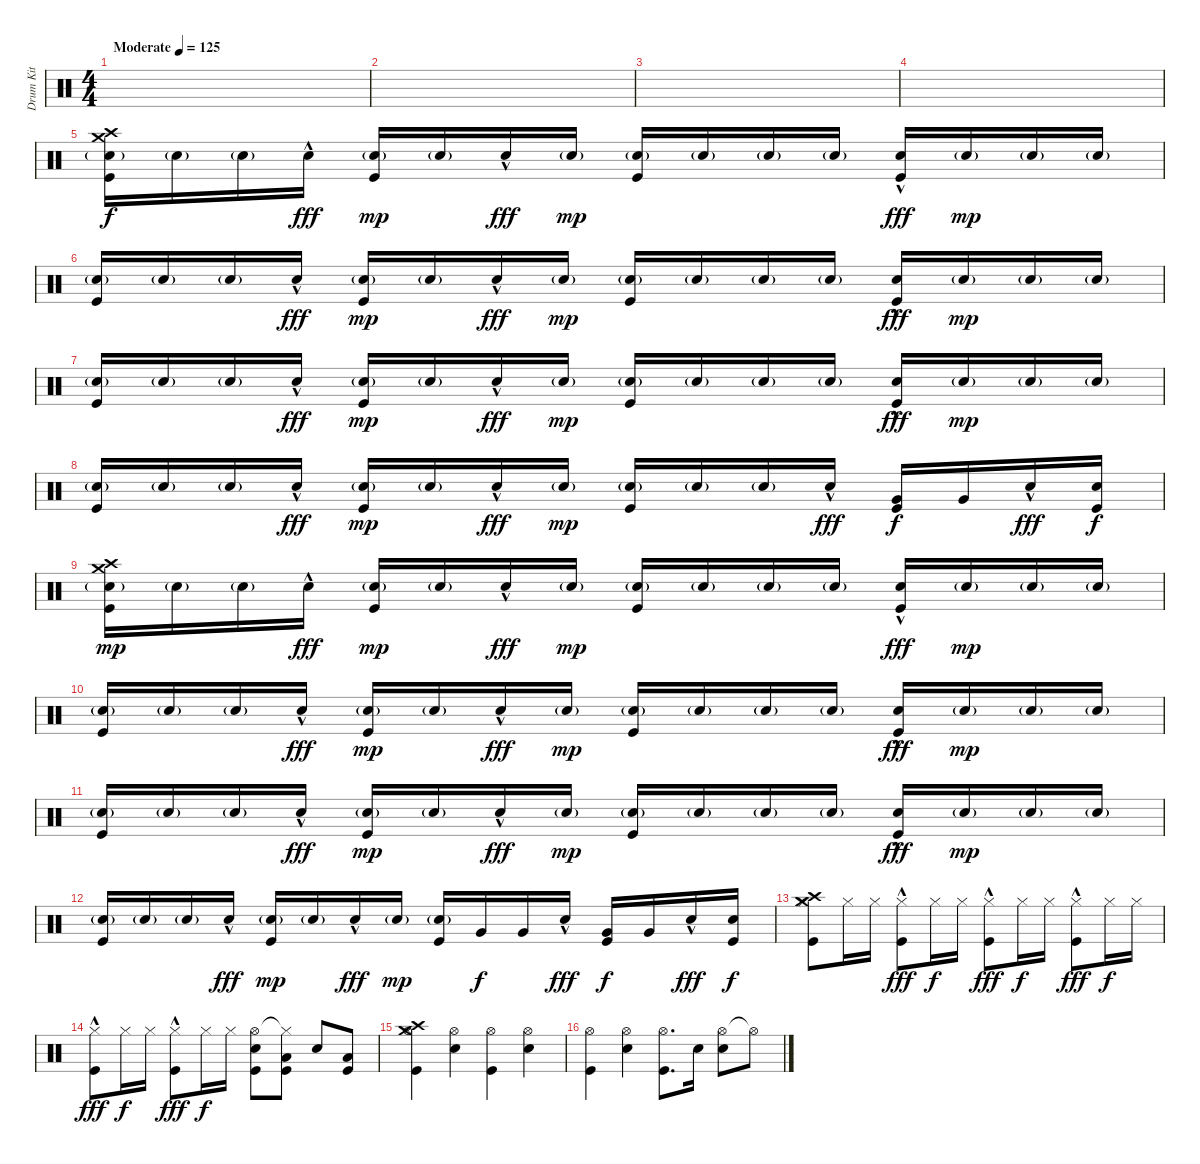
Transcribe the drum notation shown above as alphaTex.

\track ("Drum Kit" "Drum Kit") {instrument percussion}
\staff {score}
\articulation defaults
\ts (4 4)
\tempo (125 "Moderate")
\clef neutral
\ks c
|
|
|
|
("Crash high (hit)" "Crash medium (hit)" "Electric Snare (hit)"{g} "Kick (hit)").16 "Electric Snare (hit)"{g}.16 "Electric Snare (hit)"{g}.16 "Electric Snare (hit)"{hac}.16{dy fff} ("Electric Snare (hit)"{g} "Kick (hit)").16{dy mp} "Electric Snare (hit)"{g}.16 "Electric Snare (hit)"{hac}.16{dy fff} "Electric Snare (hit)"{g}.16{dy mp} ("Electric Snare (hit)"{g} "Kick (hit)").16 "Electric Snare (hit)"{g}.16 "Electric Snare (hit)"{g}.16 "Electric Snare (hit)"{g}.16 ("Electric Snare (hit)"{hac} "Kick (hit)").16{dy fff} "Electric Snare (hit)"{g}.16{dy mp} "Electric Snare (hit)"{g}.16 "Electric Snare (hit)"{g}.16 |
("Electric Snare (hit)"{g} "Kick (hit)").16 "Electric Snare (hit)"{g}.16 "Electric Snare (hit)"{g}.16 "Electric Snare (hit)"{hac}.16{dy fff} ("Electric Snare (hit)"{g} "Kick (hit)").16{dy mp} "Electric Snare (hit)"{g}.16 "Electric Snare (hit)"{hac}.16{dy fff} "Electric Snare (hit)"{g}.16{dy mp} ("Electric Snare (hit)"{g} "Kick (hit)").16 "Electric Snare (hit)"{g}.16 "Electric Snare (hit)"{g}.16 "Electric Snare (hit)"{g}.16 ("Electric Snare (hit)"{hac} "Kick (hit)").16{dy fff} "Electric Snare (hit)"{g}.16{dy mp} "Electric Snare (hit)"{g}.16 "Electric Snare (hit)"{g}.16 |
("Electric Snare (hit)"{g} "Kick (hit)").16 "Electric Snare (hit)"{g}.16 "Electric Snare (hit)"{g}.16 "Electric Snare (hit)"{hac}.16{dy fff} ("Electric Snare (hit)"{g} "Kick (hit)").16{dy mp} "Electric Snare (hit)"{g}.16 "Electric Snare (hit)"{hac}.16{dy fff} "Electric Snare (hit)"{g}.16{dy mp} ("Electric Snare (hit)"{g} "Kick (hit)").16 "Electric Snare (hit)"{g}.16 "Electric Snare (hit)"{g}.16 "Electric Snare (hit)"{g}.16 ("Electric Snare (hit)"{hac} "Kick (hit)").16{dy fff} "Electric Snare (hit)"{g}.16{dy mp} "Electric Snare (hit)"{g}.16 "Electric Snare (hit)"{g}.16 |
("Electric Snare (hit)"{g} "Kick (hit)").16 "Electric Snare (hit)"{g}.16 "Electric Snare (hit)"{g}.16 "Electric Snare (hit)"{hac}.16{dy fff} ("Electric Snare (hit)"{g} "Kick (hit)").16{dy mp} "Electric Snare (hit)"{g}.16 "Electric Snare (hit)"{hac}.16{dy fff} "Electric Snare (hit)"{g}.16{dy mp} ("Electric Snare (hit)"{g} "Kick (hit)").16 "Electric Snare (hit)"{g}.16 "Electric Snare (hit)"{g}.16 "Electric Snare (hit)"{hac}.16{dy fff} ("Very Low Tom (hit)" "Kick (hit)").16{dy f} "Very Low Tom (hit)".16 "Electric Snare (hit)"{hac}.16{dy fff} ("Electric Snare (hit)" "Kick (hit)").16{dy f} |
("Crash high (hit)" "Crash medium (hit)" "Electric Snare (hit)"{g} "Kick (hit)").16{dy mp} "Electric Snare (hit)"{g}.16 "Electric Snare (hit)"{g}.16 "Electric Snare (hit)"{hac}.16{dy fff} ("Electric Snare (hit)"{g} "Kick (hit)").16{dy mp} "Electric Snare (hit)"{g}.16 "Electric Snare (hit)"{hac}.16{dy fff} "Electric Snare (hit)"{g}.16{dy mp} ("Electric Snare (hit)"{g} "Kick (hit)").16 "Electric Snare (hit)"{g}.16 "Electric Snare (hit)"{g}.16 "Electric Snare (hit)"{g}.16 ("Electric Snare (hit)"{hac} "Kick (hit)").16{dy fff} "Electric Snare (hit)"{g}.16{dy mp} "Electric Snare (hit)"{g}.16 "Electric Snare (hit)"{g}.16 |
("Electric Snare (hit)"{g} "Kick (hit)").16 "Electric Snare (hit)"{g}.16 "Electric Snare (hit)"{g}.16 "Electric Snare (hit)"{hac}.16{dy fff} ("Electric Snare (hit)"{g} "Kick (hit)").16{dy mp} "Electric Snare (hit)"{g}.16 "Electric Snare (hit)"{hac}.16{dy fff} "Electric Snare (hit)"{g}.16{dy mp} ("Electric Snare (hit)"{g} "Kick (hit)").16 "Electric Snare (hit)"{g}.16 "Electric Snare (hit)"{g}.16 "Electric Snare (hit)"{g}.16 ("Electric Snare (hit)"{hac} "Kick (hit)").16{dy fff} "Electric Snare (hit)"{g}.16{dy mp} "Electric Snare (hit)"{g}.16 "Electric Snare (hit)"{g}.16 |
("Electric Snare (hit)"{g} "Kick (hit)").16 "Electric Snare (hit)"{g}.16 "Electric Snare (hit)"{g}.16 "Electric Snare (hit)"{hac}.16{dy fff} ("Electric Snare (hit)"{g} "Kick (hit)").16{dy mp} "Electric Snare (hit)"{g}.16 "Electric Snare (hit)"{hac}.16{dy fff} "Electric Snare (hit)"{g}.16{dy mp} ("Electric Snare (hit)"{g} "Kick (hit)").16 "Electric Snare (hit)"{g}.16 "Electric Snare (hit)"{g}.16 "Electric Snare (hit)"{g}.16 ("Electric Snare (hit)"{hac} "Kick (hit)").16{dy fff} "Electric Snare (hit)"{g}.16{dy mp} "Electric Snare (hit)"{g}.16 "Electric Snare (hit)"{g}.16 |
("Electric Snare (hit)"{g} "Kick (hit)").16 "Electric Snare (hit)"{g}.16 "Electric Snare (hit)"{g}.16 "Electric Snare (hit)"{hac}.16{dy fff} ("Electric Snare (hit)"{g} "Kick (hit)").16{dy mp} "Electric Snare (hit)"{g}.16 "Electric Snare (hit)"{hac}.16{dy fff} "Electric Snare (hit)"{g}.16{dy mp} ("Electric Snare (hit)"{g} "Kick (hit)").16 "Very Low Tom (hit)".16{dy f} "Very Low Tom (hit)".16 "Electric Snare (hit)"{hac}.16{dy fff} ("Very Low Tom (hit)" "Kick (hit)").16{dy f} "Very Low Tom (hit)".16 "Electric Snare (hit)"{hac}.16{dy fff} ("Electric Snare (hit)" "Kick (hit)").16{dy f} |
("Crash high (hit)" "Hi-Hat (closed)" "Crash medium (hit)" "Kick (hit)").8 "Hi-Hat (closed)".16 "Hi-Hat (closed)".16 ("Hi-Hat (closed)"{hac} "Kick (hit)").8{dy fff} "Hi-Hat (closed)".16{dy f} "Hi-Hat (closed)".16 ("Hi-Hat (closed)"{hac} "Kick (hit)").8{dy fff} "Hi-Hat (closed)".16{dy f} "Hi-Hat (closed)".16 ("Hi-Hat (closed)"{hac} "Kick (hit)").8{dy fff} "Hi-Hat (closed)".16{dy f} "Hi-Hat (closed)".16 |
("Hi-Hat (closed)"{hac} "Kick (hit)").8{dy fff} "Hi-Hat (closed)".16{dy f} "Hi-Hat (closed)".16 ("Hi-Hat (closed)"{hac} "Kick (hit)").8{dy fff} "Hi-Hat (closed)".16{dy f} "Hi-Hat (closed)".16 ("Hi-Hat (open)" "Electric Snare (hit)" "Kick (hit)").8 ("Hi-Hat (closed)"{t} "Kick (hit)" "Low Floor Tom (hit)").8 "Electric Snare (hit)".8 ("Kick (hit)" "Low Floor Tom (hit)").8 |
("Crash high (hit)" "Hi-Hat (open)" "Crash medium (hit)" "Kick (hit)").4 ("Hi-Hat (open)" "Electric Snare (hit)").4 ("Hi-Hat (open)" "Kick (hit)").4 ("Hi-Hat (open)" "Electric Snare (hit)").4 |
("Hi-Hat (open)" "Kick (hit)").4 ("Hi-Hat (open)" "Electric Snare (hit)").4 ("Hi-Hat (open)" "Kick (hit)").8{d} "Electric Snare (hit)".16 ("Hi-Hat (open)" "Electric Snare (hit)").8 "Hi-Hat (open)"{t}.8
